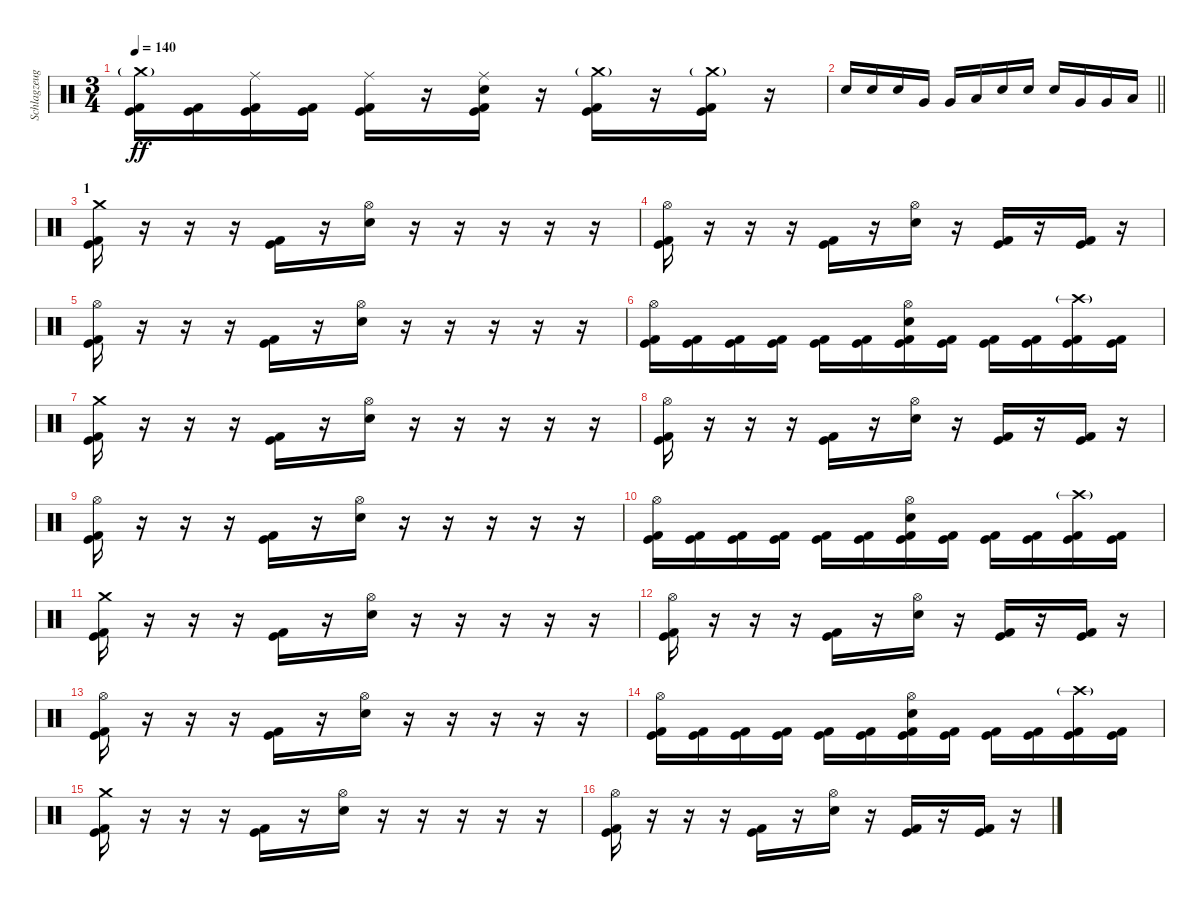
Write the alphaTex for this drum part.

\track ("Schlagzeug" "Schlagzeug") {instrument percussion}
\staff {score}
\articulation defaults
\ts (3 4)
\tempo 140
\clef neutral
\ks c
("Crash medium (hit)"{g} "Kick (hit)" "Kick (hit) 2").16{dy ff} ("Kick (hit)" "Kick (hit) 2").16 ("Ride (middle)" "Kick (hit)" "Kick (hit) 2").16 ("Kick (hit)" "Kick (hit) 2").16 ("Ride (middle)" "Kick (hit)" "Kick (hit) 2").16 r.16 ("Ride (middle)" "Kick (hit)" "Kick (hit) 2" "Electric Snare (hit)").16 r.16 ("Crash medium (hit)"{g} "Kick (hit)" "Kick (hit) 2").16 r.16 ("Crash medium (hit)"{g} "Kick (hit)" "Kick (hit) 2").16 r.16 |
\barLineRight lightlight "Electric Snare (hit)".16 "Electric Snare (hit)".16 "Electric Snare (hit)".16 "Very Low Tom (hit)".16 "Very Low Tom (hit)".16 "Low Floor Tom (hit)".16 "Electric Snare (hit)".16 "Electric Snare (hit)".16 "Electric Snare (hit)".16 "Very Low Tom (hit)".16 "Very Low Tom (hit)".16 "Low Floor Tom (hit)".16
|
\section ("" "1")
("Crash medium (hit)" "Kick (hit)" "Kick (hit) 2").16 r.16 r.16 r.16 ("Kick (hit)" "Kick (hit) 2").16 r.16 ("Hi-Hat (open)" "Electric Snare (hit)").16 r.16 r.16 r.16 r.16 r.16 |
("Hi-Hat (open)" "Kick (hit)" "Kick (hit) 2").16 r.16 r.16 r.16 ("Kick (hit)" "Kick (hit) 2").16 r.16 ("Hi-Hat (open)" "Electric Snare (hit)").16 r.16 ("Kick (hit)" "Kick (hit) 2").16 r.16 ("Kick (hit)" "Kick (hit) 2").16 r.16 |
("Hi-Hat (open)" "Kick (hit)" "Kick (hit) 2").16 r.16 r.16 r.16 ("Kick (hit)" "Kick (hit) 2").16 r.16 ("Hi-Hat (open)" "Electric Snare (hit)").16 r.16 r.16 r.16 r.16 r.16 |
("Hi-Hat (open)" "Kick (hit)" "Kick (hit) 2").16 ("Kick (hit)" "Kick (hit) 2").16 ("Kick (hit)" "Kick (hit) 2").16 ("Kick (hit)" "Kick (hit) 2").16 ("Kick (hit)" "Kick (hit) 2").16 ("Kick (hit)" "Kick (hit) 2").16 ("Hi-Hat (open)" "Kick (hit)" "Kick (hit) 2" "Electric Snare (hit)").16 ("Kick (hit)" "Kick (hit) 2").16 ("Kick (hit)" "Kick (hit) 2").16 ("Kick (hit)" "Kick (hit) 2").16 ("Crash high (hit)"{g} "Kick (hit)" "Kick (hit) 2").16 ("Kick (hit)" "Kick (hit) 2").16 |
("Crash medium (hit)" "Kick (hit)" "Kick (hit) 2").16 r.16 r.16 r.16 ("Kick (hit)" "Kick (hit) 2").16 r.16 ("Hi-Hat (open)" "Electric Snare (hit)").16 r.16 r.16 r.16 r.16 r.16 |
("Hi-Hat (open)" "Kick (hit)" "Kick (hit) 2").16 r.16 r.16 r.16 ("Kick (hit)" "Kick (hit) 2").16 r.16 ("Hi-Hat (open)" "Electric Snare (hit)").16 r.16 ("Kick (hit)" "Kick (hit) 2").16 r.16 ("Kick (hit)" "Kick (hit) 2").16 r.16 |
("Hi-Hat (open)" "Kick (hit)" "Kick (hit) 2").16 r.16 r.16 r.16 ("Kick (hit)" "Kick (hit) 2").16 r.16 ("Hi-Hat (open)" "Electric Snare (hit)").16 r.16 r.16 r.16 r.16 r.16 |
("Hi-Hat (open)" "Kick (hit)" "Kick (hit) 2").16 ("Kick (hit)" "Kick (hit) 2").16 ("Kick (hit)" "Kick (hit) 2").16 ("Kick (hit)" "Kick (hit) 2").16 ("Kick (hit)" "Kick (hit) 2").16 ("Kick (hit)" "Kick (hit) 2").16 ("Hi-Hat (open)" "Kick (hit)" "Kick (hit) 2" "Electric Snare (hit)").16 ("Kick (hit)" "Kick (hit) 2").16 ("Kick (hit)" "Kick (hit) 2").16 ("Kick (hit)" "Kick (hit) 2").16 ("Crash high (hit)"{g} "Kick (hit)" "Kick (hit) 2").16 ("Kick (hit)" "Kick (hit) 2").16 |
("Crash medium (hit)" "Kick (hit)" "Kick (hit) 2").16 r.16 r.16 r.16 ("Kick (hit)" "Kick (hit) 2").16 r.16 ("Hi-Hat (open)" "Electric Snare (hit)").16 r.16 r.16 r.16 r.16 r.16 |
("Hi-Hat (open)" "Kick (hit)" "Kick (hit) 2").16 r.16 r.16 r.16 ("Kick (hit)" "Kick (hit) 2").16 r.16 ("Hi-Hat (open)" "Electric Snare (hit)").16 r.16 ("Kick (hit)" "Kick (hit) 2").16 r.16 ("Kick (hit)" "Kick (hit) 2").16 r.16 |
("Hi-Hat (open)" "Kick (hit)" "Kick (hit) 2").16 r.16 r.16 r.16 ("Kick (hit)" "Kick (hit) 2").16 r.16 ("Hi-Hat (open)" "Electric Snare (hit)").16 r.16 r.16 r.16 r.16 r.16 |
("Hi-Hat (open)" "Kick (hit)" "Kick (hit) 2").16 ("Kick (hit)" "Kick (hit) 2").16 ("Kick (hit)" "Kick (hit) 2").16 ("Kick (hit)" "Kick (hit) 2").16 ("Kick (hit)" "Kick (hit) 2").16 ("Kick (hit)" "Kick (hit) 2").16 ("Hi-Hat (open)" "Kick (hit)" "Kick (hit) 2" "Electric Snare (hit)").16 ("Kick (hit)" "Kick (hit) 2").16 ("Kick (hit)" "Kick (hit) 2").16 ("Kick (hit)" "Kick (hit) 2").16 ("Crash high (hit)"{g} "Kick (hit)" "Kick (hit) 2").16 ("Kick (hit)" "Kick (hit) 2").16 |
("Crash medium (hit)" "Kick (hit)" "Kick (hit) 2").16 r.16 r.16 r.16 ("Kick (hit)" "Kick (hit) 2").16 r.16 ("Hi-Hat (open)" "Electric Snare (hit)").16 r.16 r.16 r.16 r.16 r.16 |
("Hi-Hat (open)" "Kick (hit)" "Kick (hit) 2").16 r.16 r.16 r.16 ("Kick (hit)" "Kick (hit) 2").16 r.16 ("Hi-Hat (open)" "Electric Snare (hit)").16 r.16 ("Kick (hit)" "Kick (hit) 2").16 r.16 ("Kick (hit)" "Kick (hit) 2").16 r.16
